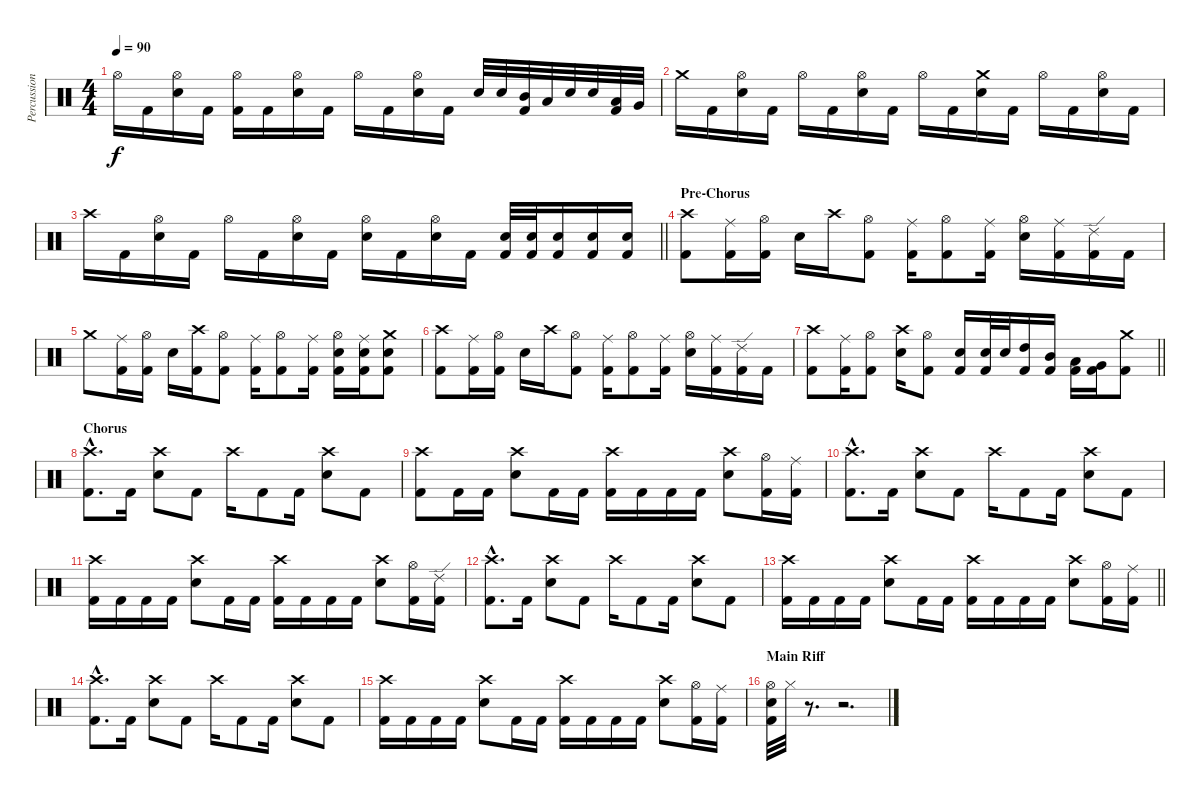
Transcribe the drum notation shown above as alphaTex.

\track ("Percussion" "Percussion") {instrument percussion}
\staff {score}
\articulation defaults
\ts (4 4)
\tempo 90
\clef neutral
\ks c "Hi-Hat (open)".16{dy f} "Kick (hit) 2".16
("Hi-Hat (open)" "Electric Snare (hit)").16 "Kick (hit) 2".16 ("Hi-Hat (open)" "Kick (hit) 2").16 "Kick (hit) 2".16 ("Hi-Hat (open)" "Electric Snare (hit)").16 "Kick (hit) 2".16 "Hi-Hat (open)".16 "Kick (hit) 2".16 ("Hi-Hat (open)" "Electric Snare (hit)").16 "Kick (hit) 2".16 "Electric Snare (hit)".32 "Electric Snare (hit)".32 ("Mid Tom (hit)" "Kick (hit) 2").32 "Low Tom (hit)".32 "Electric Snare (hit)".32 "Electric Snare (hit)".32 ("Low Tom (hit)" "Kick (hit) 2").32 "Very Low Tom (hit)".32 |
"Crash medium (hit)".16 "Kick (hit) 2".16 ("Hi-Hat (open)" "Electric Snare (hit)").16 "Kick (hit) 2".16 "Hi-Hat (open)".16 "Kick (hit) 2".16 ("Hi-Hat (open)" "Electric Snare (hit)").16 "Kick (hit) 2".16 "Hi-Hat (open)".16 "Kick (hit) 2".16 ("Crash medium (hit)" "Electric Snare (hit)").16 "Kick (hit) 2".16 "Hi-Hat (open)".16 "Kick (hit) 2".16 ("Hi-Hat (open)" "Electric Snare (hit)").16 "Kick (hit) 2".16 |
\barLineRight lightlight "Crash high (hit)".16 "Kick (hit) 2".16
("Hi-Hat (open)" "Electric Snare (hit)").16 "Kick (hit) 2".16 "Hi-Hat (open)".16 "Kick (hit) 2".16 ("Hi-Hat (open)" "Electric Snare (hit)").16 "Kick (hit) 2".16 ("Hi-Hat (open)" "Electric Snare (hit)").16 "Kick (hit) 2".16 ("Hi-Hat (open)" "Electric Snare (hit)").16 "Kick (hit) 2".16 ("Electric Snare (hit)" "Kick (hit) 2").32 ("Electric Snare (hit)" "Kick (hit) 2").32 ("Electric Snare (hit)" "Kick (hit) 2").16 ("Electric Snare (hit)" "Kick (hit) 2").16 ("Electric Snare (hit)" "Kick (hit) 2").16 |
\section ("" "Pre-Chorus")
("Crash high (hit)" "Kick (hit) 2").8 ("Ride (middle)" "Kick (hit) 2").16 ("Hi-Hat (open)" "Kick (hit) 2").16 "Electric Snare (hit)".16 "Crash high (hit)".16 ("Hi-Hat (open)" "Kick (hit) 2").8 ("Ride (middle)" "Kick (hit) 2").16 ("Hi-Hat (open)" "Kick (hit) 2").8 ("Ride (middle)" "Kick (hit) 2").16 ("Hi-Hat (open)" "Electric Snare (hit)").16 ("Ride (middle)" "Kick (hit) 2").16 ("Ride (edge) 2" "Kick (hit) 2").16 "Kick (hit) 2".16 |
"Crash medium (hit)".8 ("Ride (middle)" "Kick (hit) 2").16 ("Hi-Hat (open)" "Kick (hit) 2").16 "Electric Snare (hit)".16 ("Crash high (hit)" "Kick (hit) 2").16 ("Hi-Hat (open)" "Kick (hit) 2").8 ("Ride (middle)" "Kick (hit) 2").16 ("Hi-Hat (open)" "Kick (hit) 2").8 ("Ride (middle)" "Kick (hit) 2").16 ("Hi-Hat (open)" "Electric Snare (hit)" "Kick (hit) 2").16 ("Ride (middle)" "Electric Snare (hit)" "Kick (hit) 2").16 ("Crash medium (hit)" "Electric Snare (hit)" "Kick (hit) 2").8 |
("Crash high (hit)" "Kick (hit) 2").8 ("Ride (middle)" "Kick (hit) 2").16 ("Hi-Hat (open)" "Kick (hit) 2").16 "Electric Snare (hit)".16 "Crash high (hit)".16 ("Hi-Hat (open)" "Kick (hit) 2").8 ("Ride (middle)" "Kick (hit) 2").16 ("Hi-Hat (open)" "Kick (hit) 2").8 ("Ride (middle)" "Kick (hit) 2").16 ("Hi-Hat (open)" "Electric Snare (hit)").16 ("Ride (middle)" "Kick (hit) 2").16 ("Ride (edge) 2" "Kick (hit) 2").16 "Kick (hit) 2".16 |
\barLineRight lightlight
("Crash high (hit)" "Kick (hit) 2").8 ("Ride (middle)" "Kick (hit) 2").16 ("Hi-Hat (open)" "Kick (hit) 2").8 ("Crash high (hit)" "Electric Snare (hit)").16 ("Hi-Hat (open)" "Kick (hit) 2").8 ("Electric Snare (hit)" "Kick (hit) 2").16 ("Electric Snare (hit)" "Kick (hit) 2").32 "Electric Snare (hit)".32 ("High Tom (hit)" "Kick (hit) 2").16 ("Mid Tom (hit)" "Kick (hit) 2").16 ("Low Tom (hit)" "Kick (hit) 2").16 ("Very Low Tom (hit)" "Kick (hit) 2").16 ("Crash medium (hit)" "Kick (hit) 2").8 |
\section ("" "Chorus")
("Crash high (hit)"{hac} "Kick (hit) 2"{hac}).8{d} "Kick (hit) 2".16 ("Crash high (hit)" "Electric Snare (hit)").8 "Kick (hit) 2".8 "Crash high (hit)".16 "Kick (hit) 2".8 "Kick (hit) 2".16 ("Crash high (hit)" "Electric Snare (hit)").8 "Kick (hit) 2".8 |
("Crash high (hit)" "Kick (hit) 2").8 "Kick (hit) 2".16 "Kick (hit) 2".16 ("Crash high (hit)" "Electric Snare (hit)").8 "Kick (hit) 2".16 "Kick (hit) 2".16 ("Crash high (hit)" "Kick (hit) 2").16 "Kick (hit) 2".16 "Kick (hit) 2".16 "Kick (hit) 2".16 ("Crash high (hit)" "Electric Snare (hit)").8 ("Hi-Hat (open)" "Kick (hit) 2").16 ("Ride (middle)" "Kick (hit) 2").16 |
("Crash high (hit)"{hac} "Kick (hit) 2"{hac}).8{d} "Kick (hit) 2".16 ("Crash high (hit)" "Electric Snare (hit)").8 "Kick (hit) 2".8 "Crash high (hit)".16 "Kick (hit) 2".8 "Kick (hit) 2".16 ("Crash high (hit)" "Electric Snare (hit)").8 "Kick (hit) 2".8 |
("Crash high (hit)" "Kick (hit) 2").16 "Kick (hit) 2".16 "Kick (hit) 2".16 "Kick (hit) 2".16 ("Crash high (hit)" "Electric Snare (hit)").8 "Kick (hit) 2".16 "Kick (hit) 2".16 ("Crash high (hit)" "Kick (hit) 2").16 "Kick (hit) 2".16 "Kick (hit) 2".16 "Kick (hit) 2".16 ("Crash high (hit)" "Electric Snare (hit)").8 ("Hi-Hat (open)" "Kick (hit) 2").16 ("Ride (edge) 2" "Kick (hit) 2").16 |
("Crash high (hit)"{hac} "Kick (hit) 2"{hac}).8{d} "Kick (hit) 2".16 ("Crash high (hit)" "Electric Snare (hit)").8 "Kick (hit) 2".8 "Crash high (hit)".16 "Kick (hit) 2".8 "Kick (hit) 2".16 ("Crash high (hit)" "Electric Snare (hit)").8 "Kick (hit) 2".8 |
\barLineRight lightlight
("Crash high (hit)" "Kick (hit) 2").16 "Kick (hit) 2".16 "Kick (hit) 2".16 "Kick (hit) 2".16 ("Crash high (hit)" "Electric Snare (hit)").8 "Kick (hit) 2".16 "Kick (hit) 2".16 ("Crash high (hit)" "Kick (hit) 2").16 "Kick (hit) 2".16 "Kick (hit) 2".16 "Kick (hit) 2".16 ("Crash high (hit)" "Electric Snare (hit)").8 ("Hi-Hat (open)" "Kick (hit) 2").16 ("Ride (middle)" "Kick (hit) 2").16 |
("Crash high (hit)"{hac} "Kick (hit) 2"{hac}).8{d} "Kick (hit) 2".16 ("Crash high (hit)" "Electric Snare (hit)").8 "Kick (hit) 2".8 "Crash high (hit)".16 "Kick (hit) 2".8 "Kick (hit) 2".16 ("Crash high (hit)" "Electric Snare (hit)").8 "Kick (hit) 2".8 |
("Crash high (hit)" "Kick (hit) 2").16 "Kick (hit) 2".16 "Kick (hit) 2".16 "Kick (hit) 2".16 ("Crash high (hit)" "Electric Snare (hit)").8 "Kick (hit) 2".16 "Kick (hit) 2".16 ("Crash high (hit)" "Kick (hit) 2").16 "Kick (hit) 2".16 "Kick (hit) 2".16 "Kick (hit) 2".16 ("Crash high (hit)" "Electric Snare (hit)").8 ("Hi-Hat (open)" "Kick (hit) 2").16 ("Ride (middle)" "Kick (hit) 2").16 |
\section ("" "Main Riff")
("Hi-Hat (open)" "Electric Snare (hit)" "Kick (hit) 2").32 "Hi-Hat (closed)".32 r.8{d} r.2{d}
